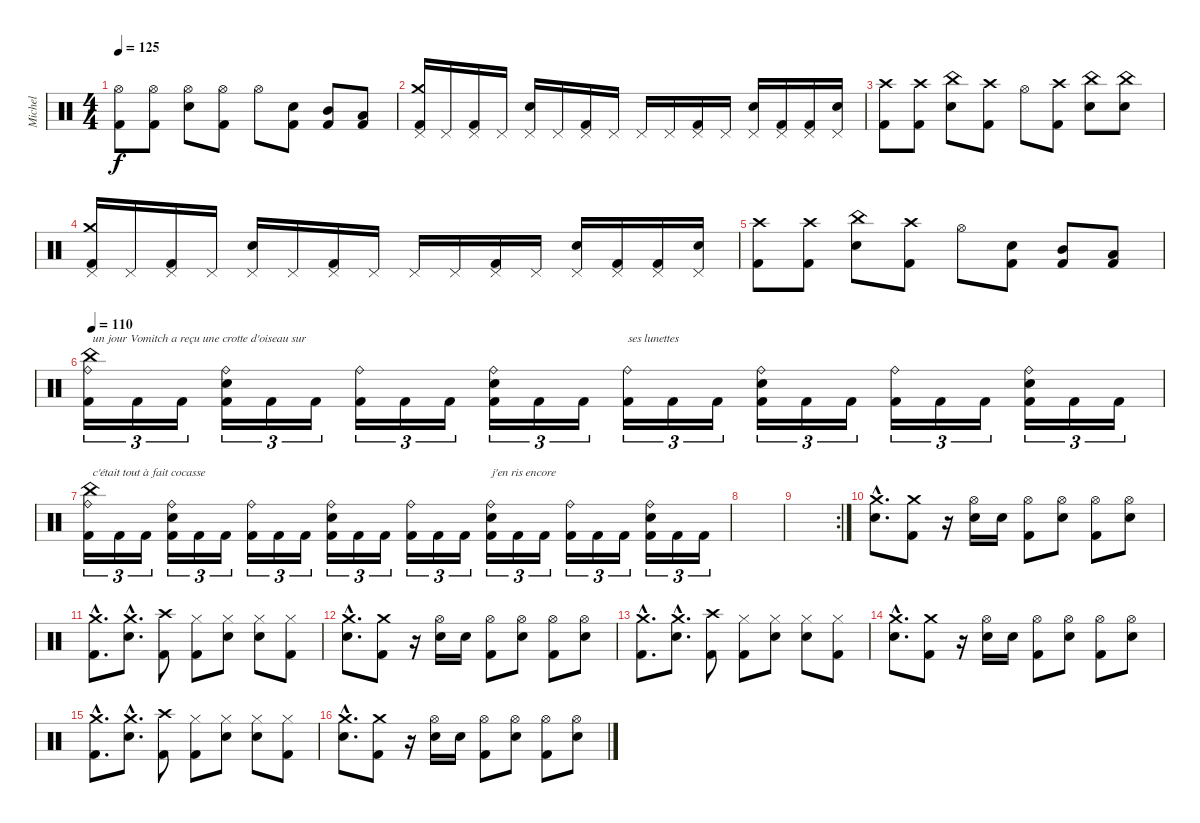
\track ("Michel" "Michel") {instrument percussion}
\staff {score}
\articulation defaults
\ts (4 4)
\tempo 125
\clef neutral
\ks c
("Kick (hit) 2" "Hi-Hat (open)").8{dy f} ("Kick (hit) 2" "Hi-Hat (open)").8 ("Snare (hit) 2" "Hi-Hat (open)").8 ("Kick (hit) 2" "Hi-Hat (open)").8 "Hi-Hat (open)".8 ("Snare (hit) 2" "Kick (hit) 2").8 ("Mid Tom (hit)" "Kick (hit) 2").8 ("Low Tom (hit)" "Kick (hit) 2").8 |
("Crash medium (hit)" "Kick (hit) 2" "Pedal Hi-Hat (hit)").16 "Pedal Hi-Hat (hit)".16 ("Kick (hit) 2" "Pedal Hi-Hat (hit)").16 "Pedal Hi-Hat (hit)".16 ("Snare (hit) 2" "Pedal Hi-Hat (hit)").16 "Pedal Hi-Hat (hit)".16 ("Kick (hit) 2" "Pedal Hi-Hat (hit)").16 "Pedal Hi-Hat (hit)".16 "Pedal Hi-Hat (hit)".16 "Pedal Hi-Hat (hit)".16 ("Kick (hit) 2" "Pedal Hi-Hat (hit)").16 "Pedal Hi-Hat (hit)".16 ("Snare (hit) 2" "Pedal Hi-Hat (hit)").16 ("Kick (hit) 2" "Pedal Hi-Hat (hit)").16 ("Kick (hit) 2" "Pedal Hi-Hat (hit)").16 ("Snare (hit) 2" "Pedal Hi-Hat (hit)").16 |
("Crash high (hit)" "Kick (hit) 2").8 ("Crash high (hit)" "Kick (hit) 2").8 ("China (hit)" "Snare (hit) 2").8 ("Crash high (hit)" "Kick (hit) 2").8 "Hi-Hat (open)".8 ("Crash high (hit)" "Kick (hit) 2").8 ("China (hit)" "Snare (hit) 2").8 ("China (hit)" "Snare (hit) 2").8 |
("Crash medium (hit)" "Kick (hit) 2" "Pedal Hi-Hat (hit)").16 "Pedal Hi-Hat (hit)".16 ("Kick (hit) 2" "Pedal Hi-Hat (hit)").16 "Pedal Hi-Hat (hit)".16 ("Snare (hit) 2" "Pedal Hi-Hat (hit)").16 "Pedal Hi-Hat (hit)".16 ("Kick (hit) 2" "Pedal Hi-Hat (hit)").16 "Pedal Hi-Hat (hit)".16 "Pedal Hi-Hat (hit)".16 "Pedal Hi-Hat (hit)".16 ("Kick (hit) 2" "Pedal Hi-Hat (hit)").16 "Pedal Hi-Hat (hit)".16 ("Snare (hit) 2" "Pedal Hi-Hat (hit)").16 ("Kick (hit) 2" "Pedal Hi-Hat (hit)").16 ("Kick (hit) 2" "Pedal Hi-Hat (hit)").16 ("Snare (hit) 2" "Pedal Hi-Hat (hit)").16 |
("Crash high (hit)" "Kick (hit) 2").8 ("Crash high (hit)" "Kick (hit) 2").8 ("China (hit)" "Snare (hit) 2").8 ("Crash high (hit)" "Kick (hit) 2").8 "Hi-Hat (open)".8 ("Snare (hit) 2" "Kick (hit) 2").8 ("Mid Tom (hit)" "Kick (hit) 2").8 ("Low Tom (hit)" "Kick (hit) 2").8 |
\tempo 110
("China (hit)" "Kick (hit) 2" "Ride (bell)").16{tu (3 2) txt "un jour Vomitch a reçu une crotte d'oiseau sur"} "Kick (hit) 2".16{tu (3 2)} "Kick (hit) 2".16{tu (3 2)} ("Snare (hit) 2" "Kick (hit) 2" "Ride (bell)").16{tu (3 2)} "Kick (hit) 2".16{tu (3 2)} "Kick (hit) 2".16{tu (3 2)} ("Kick (hit) 2" "Ride (bell)").16{tu (3 2)} "Kick (hit) 2".16{tu (3 2)} "Kick (hit) 2".16{tu (3 2)} ("Snare (hit) 2" "Kick (hit) 2" "Ride (bell)").16{tu (3 2)} "Kick (hit) 2".16{tu (3 2)} "Kick (hit) 2".16{tu (3 2)} ("Kick (hit) 2" "Ride (bell)").16{tu (3 2) txt "ses lunettes"} "Kick (hit) 2".16{tu (3 2)} "Kick (hit) 2".16{tu (3 2)} ("Snare (hit) 2" "Kick (hit) 2" "Ride (bell)").16{tu (3 2)} "Kick (hit) 2".16{tu (3 2)} "Kick (hit) 2".16{tu (3 2)} ("Kick (hit) 2" "Ride (bell)").16{tu (3 2)} "Kick (hit) 2".16{tu (3 2)} "Kick (hit) 2".16{tu (3 2)} ("Snare (hit) 2" "Kick (hit) 2" "Ride (bell)").16{tu (3 2)} "Kick (hit) 2".16{tu (3 2)} "Kick (hit) 2".16{tu (3 2)} |
("China (hit)" "Kick (hit) 2" "Ride (bell)").16{tu (3 2) txt "c'était tout à fait cocasse"} "Kick (hit) 2".16{tu (3 2)} "Kick (hit) 2".16{tu (3 2)} ("Snare (hit) 2" "Kick (hit) 2" "Ride (bell)").16{tu (3 2)} "Kick (hit) 2".16{tu (3 2)} "Kick (hit) 2".16{tu (3 2)} ("Kick (hit) 2" "Ride (bell)").16{tu (3 2)} "Kick (hit) 2".16{tu (3 2)} "Kick (hit) 2".16{tu (3 2)} ("Snare (hit) 2" "Kick (hit) 2" "Ride (bell)").16{tu (3 2)} "Kick (hit) 2".16{tu (3 2)} "Kick (hit) 2".16{tu (3 2)} ("Kick (hit) 2" "Ride (bell)").16{tu (3 2)} "Kick (hit) 2".16{tu (3 2)} "Kick (hit) 2".16{tu (3 2)} ("Snare (hit) 2" "Kick (hit) 2" "Ride (bell)").16{tu (3 2) txt "j'en ris encore"} "Kick (hit) 2".16{tu (3 2)} "Kick (hit) 2".16{tu (3 2)} ("Kick (hit) 2" "Ride (bell)").16{tu (3 2)} "Kick (hit) 2".16{tu (3 2)} "Kick (hit) 2".16{tu (3 2)} ("Snare (hit) 2" "Kick (hit) 2" "Ride (bell)").16{tu (3 2)} "Kick (hit) 2".16{tu (3 2)} "Kick (hit) 2".16{tu (3 2)} |
|
\rc 2
|
("Crash medium (hit)"{hac} "Snare (hit) 2"{hac}).8{d} ("Crash medium (hit)" "Kick (hit) 2").8 r.16 ("Snare (hit) 2" "Hi-Hat (open)").16 "Snare (hit) 2".16 ("Kick (hit) 2" "Hi-Hat (open)").8 ("Snare (hit) 2" "Hi-Hat (open)").8 ("Kick (hit) 2" "Hi-Hat (open)").8 ("Snare (hit) 2" "Hi-Hat (open)").8 |
("Crash medium (hit)"{hac} "Kick (hit) 2"{hac}).8{d} ("Crash medium (hit)"{hac} "Snare (hit) 2"{hac}).8{d} ("Crash high (hit)" "Kick (hit) 2").8 ("Kick (hit) 2" "Hi-Hat (closed)").8 ("Snare (hit) 2" "Hi-Hat (closed)").8 ("Snare (hit) 2" "Hi-Hat (closed)").8 ("Kick (hit) 2" "Hi-Hat (closed)").8 |
("Crash medium (hit)"{hac} "Snare (hit) 2"{hac}).8{d} ("Crash medium (hit)" "Kick (hit) 2").8 r.16 ("Snare (hit) 2" "Hi-Hat (open)").16 "Snare (hit) 2".16 ("Kick (hit) 2" "Hi-Hat (open)").8 ("Snare (hit) 2" "Hi-Hat (open)").8 ("Kick (hit) 2" "Hi-Hat (open)").8 ("Snare (hit) 2" "Hi-Hat (open)").8 |
("Crash medium (hit)"{hac} "Kick (hit) 2"{hac}).8{d} ("Crash medium (hit)"{hac} "Snare (hit) 2"{hac}).8{d} ("Crash high (hit)" "Kick (hit) 2").8 ("Kick (hit) 2" "Hi-Hat (closed)").8 ("Snare (hit) 2" "Hi-Hat (closed)").8 ("Snare (hit) 2" "Hi-Hat (closed)").8 ("Kick (hit) 2" "Hi-Hat (closed)").8 |
("Crash medium (hit)"{hac} "Snare (hit) 2"{hac}).8{d} ("Crash medium (hit)" "Kick (hit) 2").8 r.16 ("Snare (hit) 2" "Hi-Hat (open)").16 "Snare (hit) 2".16 ("Kick (hit) 2" "Hi-Hat (open)").8 ("Snare (hit) 2" "Hi-Hat (open)").8 ("Kick (hit) 2" "Hi-Hat (open)").8 ("Snare (hit) 2" "Hi-Hat (open)").8 |
("Crash medium (hit)"{hac} "Kick (hit) 2"{hac}).8{d} ("Crash medium (hit)"{hac} "Snare (hit) 2"{hac}).8{d} ("Crash high (hit)" "Kick (hit) 2").8 ("Kick (hit) 2" "Hi-Hat (closed)").8 ("Snare (hit) 2" "Hi-Hat (closed)").8 ("Snare (hit) 2" "Hi-Hat (closed)").8 ("Kick (hit) 2" "Hi-Hat (closed)").8 |
("Crash medium (hit)"{hac} "Snare (hit) 2"{hac}).8{d} ("Crash medium (hit)" "Kick (hit) 2").8 r.16 ("Snare (hit) 2" "Hi-Hat (open)").16 "Snare (hit) 2".16 ("Kick (hit) 2" "Hi-Hat (open)").8 ("Snare (hit) 2" "Hi-Hat (open)").8 ("Kick (hit) 2" "Hi-Hat (open)").8 ("Snare (hit) 2" "Hi-Hat (open)").8
